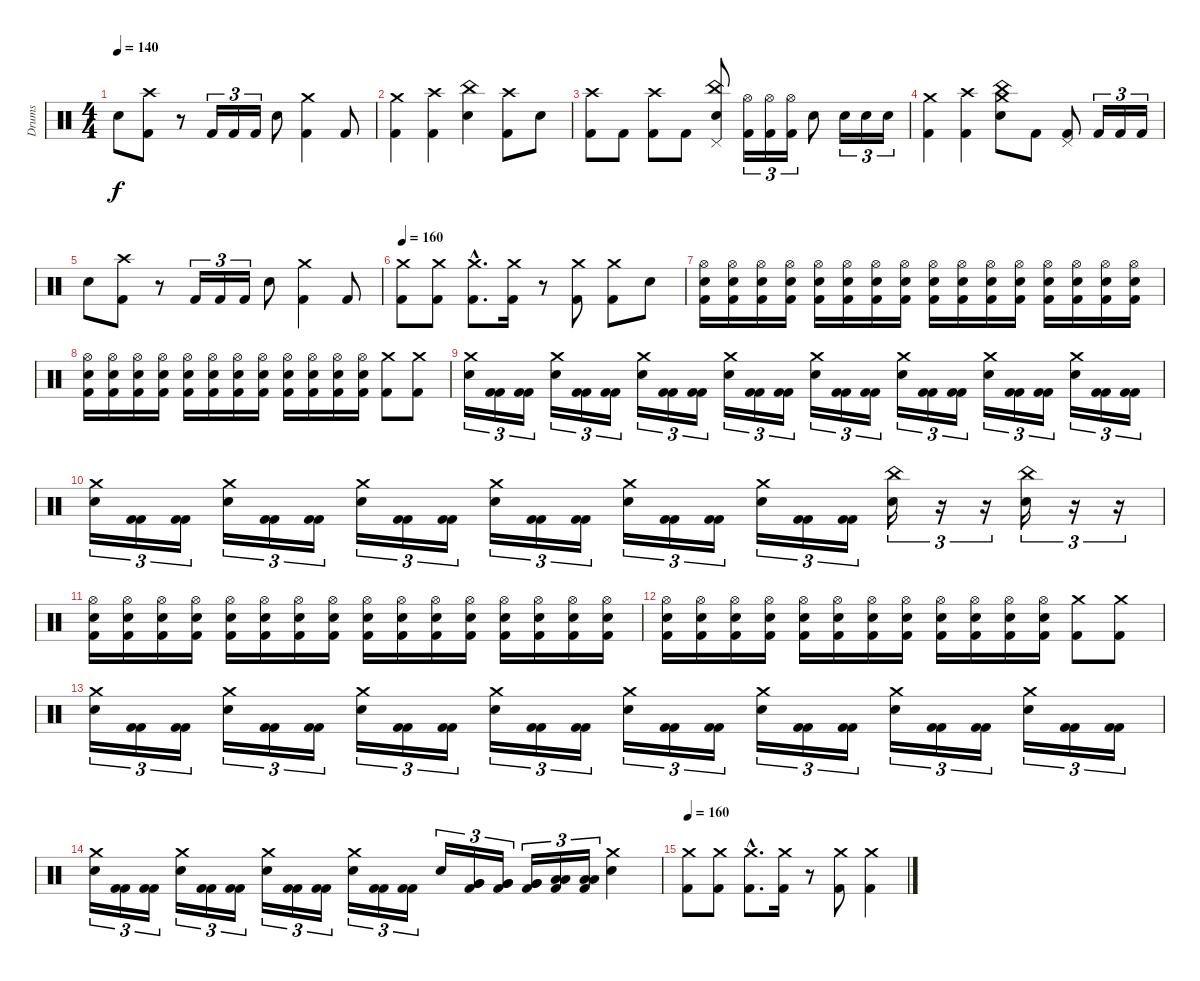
\track ("Drums" "Drums") {instrument percussion}
\staff {score}
\articulation defaults
\ts (4 4)
\tempo 140
\clef neutral
\ks c "Electric Snare (hit)".8{dy f}
("Crash high (hit)" "Kick (hit) 2").8 r.8 "Kick (hit) 2".16{tu (3 2)} "Kick (hit) 2".16{tu (3 2)} "Kick (hit) 2".16{tu (3 2)} "Electric Snare (hit)".8 ("Crash medium (hit)" "Kick (hit) 2").4 "Kick (hit) 2".8 |
("Crash medium (hit)" "Kick (hit) 2").4 ("Crash high (hit)" "Kick (hit) 2").4 ("China (hit)" "Electric Snare (hit)").4 ("Crash high (hit)" "Kick (hit) 2").8 "Electric Snare (hit)".8 |
("Crash high (hit)" "Kick (hit) 2").8 "Kick (hit) 2".8 ("Crash high (hit)" "Kick (hit) 2").8 "Kick (hit) 2".8 ("China (hit)" "Pedal Hi-Hat (hit)" "Electric Snare (hit)").8 ("Hi-Hat (open)" "Kick (hit) 2").16{tu (3 2)} ("Hi-Hat (open)" "Kick (hit) 2").16{tu (3 2)} ("Hi-Hat (open)" "Kick (hit) 2").16{tu (3 2)} "Electric Snare (hit)".8 "Electric Snare (hit)".16{tu (3 2)} "Electric Snare (hit)".16{tu (3 2)} "Electric Snare (hit)".16{tu (3 2)} |
("Crash medium (hit)" "Kick (hit) 2").4 ("Crash high (hit)" "Kick (hit) 2").4 ("Crash medium (hit)" "China (hit)" "Electric Snare (hit)").8 "Kick (hit) 2".8 ("Pedal Hi-Hat (hit)" "Kick (hit) 2").8 "Kick (hit) 2".16{tu (3 2)} "Kick (hit) 2".16{tu (3 2)} "Kick (hit) 2".16{tu (3 2)} |
"Electric Snare (hit)".8 ("Crash high (hit)" "Kick (hit) 2").8 r.8 "Kick (hit) 2".16{tu (3 2)} "Kick (hit) 2".16{tu (3 2)} "Kick (hit) 2".16{tu (3 2)} "Electric Snare (hit)".8 ("Crash medium (hit)" "Kick (hit) 2").4 "Kick (hit) 2".8 |
\tempo 160
("Crash medium (hit)" "Kick (hit) 2").8 ("Crash medium (hit)" "Kick (hit) 2").8 ("Crash medium (hit)"{hac} "Kick (hit) 2"{hac}).8{d} ("Crash medium (hit)" "Kick (hit) 2").16 r.8 ("Crash medium (hit)" "Kick (hit) 2").8 ("Crash medium (hit)" "Kick (hit) 2").8 "Electric Snare (hit)".8 |
("Hi-Hat (open)" "Electric Snare (hit)" "Kick (hit) 2").16 ("Hi-Hat (open)" "Electric Snare (hit)" "Kick (hit) 2").16 ("Hi-Hat (open)" "Electric Snare (hit)" "Kick (hit) 2").16 ("Hi-Hat (open)" "Electric Snare (hit)" "Kick (hit) 2").16 ("Hi-Hat (open)" "Electric Snare (hit)" "Kick (hit) 2").16 ("Hi-Hat (open)" "Electric Snare (hit)" "Kick (hit) 2").16 ("Hi-Hat (open)" "Electric Snare (hit)" "Kick (hit) 2").16 ("Hi-Hat (open)" "Electric Snare (hit)" "Kick (hit) 2").16 ("Hi-Hat (open)" "Electric Snare (hit)" "Kick (hit) 2").16 ("Hi-Hat (open)" "Electric Snare (hit)" "Kick (hit) 2").16 ("Hi-Hat (open)" "Electric Snare (hit)" "Kick (hit) 2").16 ("Hi-Hat (open)" "Electric Snare (hit)" "Kick (hit) 2").16 ("Hi-Hat (open)" "Electric Snare (hit)" "Kick (hit) 2").16 ("Hi-Hat (open)" "Electric Snare (hit)" "Kick (hit) 2").16 ("Hi-Hat (open)" "Electric Snare (hit)" "Kick (hit) 2").16 ("Hi-Hat (open)" "Electric Snare (hit)" "Kick (hit) 2").16 |
("Hi-Hat (open)" "Electric Snare (hit)" "Kick (hit) 2").16 ("Hi-Hat (open)" "Electric Snare (hit)" "Kick (hit) 2").16 ("Hi-Hat (open)" "Electric Snare (hit)" "Kick (hit) 2").16 ("Hi-Hat (open)" "Electric Snare (hit)" "Kick (hit) 2").16 ("Hi-Hat (open)" "Electric Snare (hit)" "Kick (hit) 2").16 ("Hi-Hat (open)" "Electric Snare (hit)" "Kick (hit) 2").16 ("Hi-Hat (open)" "Electric Snare (hit)" "Kick (hit) 2").16 ("Hi-Hat (open)" "Electric Snare (hit)" "Kick (hit) 2").16 ("Hi-Hat (open)" "Electric Snare (hit)" "Kick (hit) 2").16 ("Hi-Hat (open)" "Electric Snare (hit)" "Kick (hit) 2").16 ("Hi-Hat (open)" "Electric Snare (hit)" "Kick (hit) 2").16 ("Hi-Hat (open)" "Electric Snare (hit)" "Kick (hit) 2").16 ("Crash medium (hit)" "Kick (hit) 2").8 ("Crash medium (hit)" "Kick (hit) 2").8 |
("Crash medium (hit)" "Electric Snare (hit)").16{tu (3 2)} ("Kick (hit) 2" "Kick (hit) 2").16{tu (3 2)} ("Kick (hit) 2" "Kick (hit) 2").16{tu (3 2)} ("Crash medium (hit)" "Electric Snare (hit)").16{tu (3 2)} ("Kick (hit) 2" "Kick (hit) 2").16{tu (3 2)} ("Kick (hit) 2" "Kick (hit) 2").16{tu (3 2)} ("Crash medium (hit)" "Electric Snare (hit)").16{tu (3 2)} ("Kick (hit) 2" "Kick (hit) 2").16{tu (3 2)} ("Kick (hit) 2" "Kick (hit) 2").16{tu (3 2)} ("Crash medium (hit)" "Electric Snare (hit)").16{tu (3 2)} ("Kick (hit) 2" "Kick (hit) 2").16{tu (3 2)} ("Kick (hit) 2" "Kick (hit) 2").16{tu (3 2)} ("Crash medium (hit)" "Electric Snare (hit)").16{tu (3 2)} ("Kick (hit) 2" "Kick (hit) 2").16{tu (3 2)} ("Kick (hit) 2" "Kick (hit) 2").16{tu (3 2)} ("Crash medium (hit)" "Electric Snare (hit)").16{tu (3 2)} ("Kick (hit) 2" "Kick (hit) 2").16{tu (3 2)} ("Kick (hit) 2" "Kick (hit) 2").16{tu (3 2)} ("Crash medium (hit)" "Electric Snare (hit)").16{tu (3 2)} ("Kick (hit) 2" "Kick (hit) 2").16{tu (3 2)} ("Kick (hit) 2" "Kick (hit) 2").16{tu (3 2)} ("Crash medium (hit)" "Electric Snare (hit)").16{tu (3 2)} ("Kick (hit) 2" "Kick (hit) 2").16{tu (3 2)} ("Kick (hit) 2" "Kick (hit) 2").16{tu (3 2)} |
("Crash medium (hit)" "Electric Snare (hit)").16{tu (3 2)} ("Kick (hit) 2" "Kick (hit) 2").16{tu (3 2)} ("Kick (hit) 2" "Kick (hit) 2").16{tu (3 2)} ("Crash medium (hit)" "Electric Snare (hit)").16{tu (3 2)} ("Kick (hit) 2" "Kick (hit) 2").16{tu (3 2)} ("Kick (hit) 2" "Kick (hit) 2").16{tu (3 2)} ("Crash medium (hit)" "Electric Snare (hit)").16{tu (3 2)} ("Kick (hit) 2" "Kick (hit) 2").16{tu (3 2)} ("Kick (hit) 2" "Kick (hit) 2").16{tu (3 2)} ("Crash medium (hit)" "Electric Snare (hit)").16{tu (3 2)} ("Kick (hit) 2" "Kick (hit) 2").16{tu (3 2)} ("Kick (hit) 2" "Kick (hit) 2").16{tu (3 2)} ("Crash medium (hit)" "Electric Snare (hit)").16{tu (3 2)} ("Kick (hit) 2" "Kick (hit) 2").16{tu (3 2)} ("Kick (hit) 2" "Kick (hit) 2").16{tu (3 2)} ("Crash medium (hit)" "Electric Snare (hit)").16{tu (3 2)} ("Kick (hit) 2" "Kick (hit) 2").16{tu (3 2)} ("Kick (hit) 2" "Kick (hit) 2").16{tu (3 2)} ("China (hit)" "Electric Snare (hit)").16{tu (3 2)} r.16{tu (3 2)} r.16{tu (3 2)} ("China (hit)" "Electric Snare (hit)").16{tu (3 2)} r.16{tu (3 2)} r.16{tu (3 2)} |
("Hi-Hat (open)" "Electric Snare (hit)" "Kick (hit) 2").16 ("Hi-Hat (open)" "Electric Snare (hit)" "Kick (hit) 2").16 ("Hi-Hat (open)" "Electric Snare (hit)" "Kick (hit) 2").16 ("Hi-Hat (open)" "Electric Snare (hit)" "Kick (hit) 2").16 ("Hi-Hat (open)" "Electric Snare (hit)" "Kick (hit) 2").16 ("Hi-Hat (open)" "Electric Snare (hit)" "Kick (hit) 2").16 ("Hi-Hat (open)" "Electric Snare (hit)" "Kick (hit) 2").16 ("Hi-Hat (open)" "Electric Snare (hit)" "Kick (hit) 2").16 ("Hi-Hat (open)" "Electric Snare (hit)" "Kick (hit) 2").16 ("Hi-Hat (open)" "Electric Snare (hit)" "Kick (hit) 2").16 ("Hi-Hat (open)" "Electric Snare (hit)" "Kick (hit) 2").16 ("Hi-Hat (open)" "Electric Snare (hit)" "Kick (hit) 2").16 ("Hi-Hat (open)" "Electric Snare (hit)" "Kick (hit) 2").16 ("Hi-Hat (open)" "Electric Snare (hit)" "Kick (hit) 2").16 ("Hi-Hat (open)" "Electric Snare (hit)" "Kick (hit) 2").16 ("Hi-Hat (open)" "Electric Snare (hit)" "Kick (hit) 2").16 |
("Hi-Hat (open)" "Electric Snare (hit)" "Kick (hit) 2").16 ("Hi-Hat (open)" "Electric Snare (hit)" "Kick (hit) 2").16 ("Hi-Hat (open)" "Electric Snare (hit)" "Kick (hit) 2").16 ("Hi-Hat (open)" "Electric Snare (hit)" "Kick (hit) 2").16 ("Hi-Hat (open)" "Electric Snare (hit)" "Kick (hit) 2").16 ("Hi-Hat (open)" "Electric Snare (hit)" "Kick (hit) 2").16 ("Hi-Hat (open)" "Electric Snare (hit)" "Kick (hit) 2").16 ("Hi-Hat (open)" "Electric Snare (hit)" "Kick (hit) 2").16 ("Hi-Hat (open)" "Electric Snare (hit)" "Kick (hit) 2").16 ("Hi-Hat (open)" "Electric Snare (hit)" "Kick (hit) 2").16 ("Hi-Hat (open)" "Electric Snare (hit)" "Kick (hit) 2").16 ("Hi-Hat (open)" "Electric Snare (hit)" "Kick (hit) 2").16 ("Crash medium (hit)" "Kick (hit) 2").8 ("Crash medium (hit)" "Kick (hit) 2").8 |
("Crash medium (hit)" "Electric Snare (hit)").16{tu (3 2)} ("Kick (hit) 2" "Kick (hit) 2").16{tu (3 2)} ("Kick (hit) 2" "Kick (hit) 2").16{tu (3 2)} ("Crash medium (hit)" "Electric Snare (hit)").16{tu (3 2)} ("Kick (hit) 2" "Kick (hit) 2").16{tu (3 2)} ("Kick (hit) 2" "Kick (hit) 2").16{tu (3 2)} ("Crash medium (hit)" "Electric Snare (hit)").16{tu (3 2)} ("Kick (hit) 2" "Kick (hit) 2").16{tu (3 2)} ("Kick (hit) 2" "Kick (hit) 2").16{tu (3 2)} ("Crash medium (hit)" "Electric Snare (hit)").16{tu (3 2)} ("Kick (hit) 2" "Kick (hit) 2").16{tu (3 2)} ("Kick (hit) 2" "Kick (hit) 2").16{tu (3 2)} ("Crash medium (hit)" "Electric Snare (hit)").16{tu (3 2)} ("Kick (hit) 2" "Kick (hit) 2").16{tu (3 2)} ("Kick (hit) 2" "Kick (hit) 2").16{tu (3 2)} ("Crash medium (hit)" "Electric Snare (hit)").16{tu (3 2)} ("Kick (hit) 2" "Kick (hit) 2").16{tu (3 2)} ("Kick (hit) 2" "Kick (hit) 2").16{tu (3 2)} ("Crash medium (hit)" "Electric Snare (hit)").16{tu (3 2)} ("Kick (hit) 2" "Kick (hit) 2").16{tu (3 2)} ("Kick (hit) 2" "Kick (hit) 2").16{tu (3 2)} ("Crash medium (hit)" "Electric Snare (hit)").16{tu (3 2)} ("Kick (hit) 2" "Kick (hit) 2").16{tu (3 2)} ("Kick (hit) 2" "Kick (hit) 2").16{tu (3 2)} |
("Crash medium (hit)" "Electric Snare (hit)").16{tu (3 2)} ("Kick (hit) 2" "Kick (hit) 2").16{tu (3 2)} ("Kick (hit) 2" "Kick (hit) 2").16{tu (3 2)} ("Crash medium (hit)" "Electric Snare (hit)").16{tu (3 2)} ("Kick (hit) 2" "Kick (hit) 2").16{tu (3 2)} ("Kick (hit) 2" "Kick (hit) 2").16{tu (3 2)} ("Crash medium (hit)" "Electric Snare (hit)").16{tu (3 2)} ("Kick (hit) 2" "Kick (hit) 2").16{tu (3 2)} ("Kick (hit) 2" "Kick (hit) 2").16{tu (3 2)} ("Crash medium (hit)" "Electric Snare (hit)").16{tu (3 2)} ("Kick (hit) 2" "Kick (hit) 2").16{tu (3 2)} ("Kick (hit) 2" "Kick (hit) 2").16{tu (3 2)} "Electric Snare (hit)".16{tu (3 2)} ("Very Low Tom (hit)" "Very Low Tom (hit)" "Kick (hit) 2").16{tu (3 2)} ("Very Low Tom (hit)" "Very Low Tom (hit)" "Kick (hit) 2").16{tu (3 2)} ("Very Low Tom (hit)" "Very Low Tom (hit)" "Kick (hit) 2").16{tu (3 2)} ("Low Tom (hit)" "Low Tom (hit)" "Kick (hit) 2").16{tu (3 2)} ("Low Tom (hit)" "Low Tom (hit)" "Kick (hit) 2").16{tu (3 2)} ("Crash medium (hit)" "Electric Snare (hit)").4 |
\tempo 160
("Crash medium (hit)" "Kick (hit) 2").8 ("Crash medium (hit)" "Kick (hit) 2").8 ("Crash medium (hit)"{hac} "Kick (hit) 2"{hac}).8{d} ("Crash medium (hit)" "Kick (hit) 2").16 r.8 ("Crash medium (hit)" "Kick (hit) 2").8 ("Crash medium (hit)" "Kick (hit) 2").4
